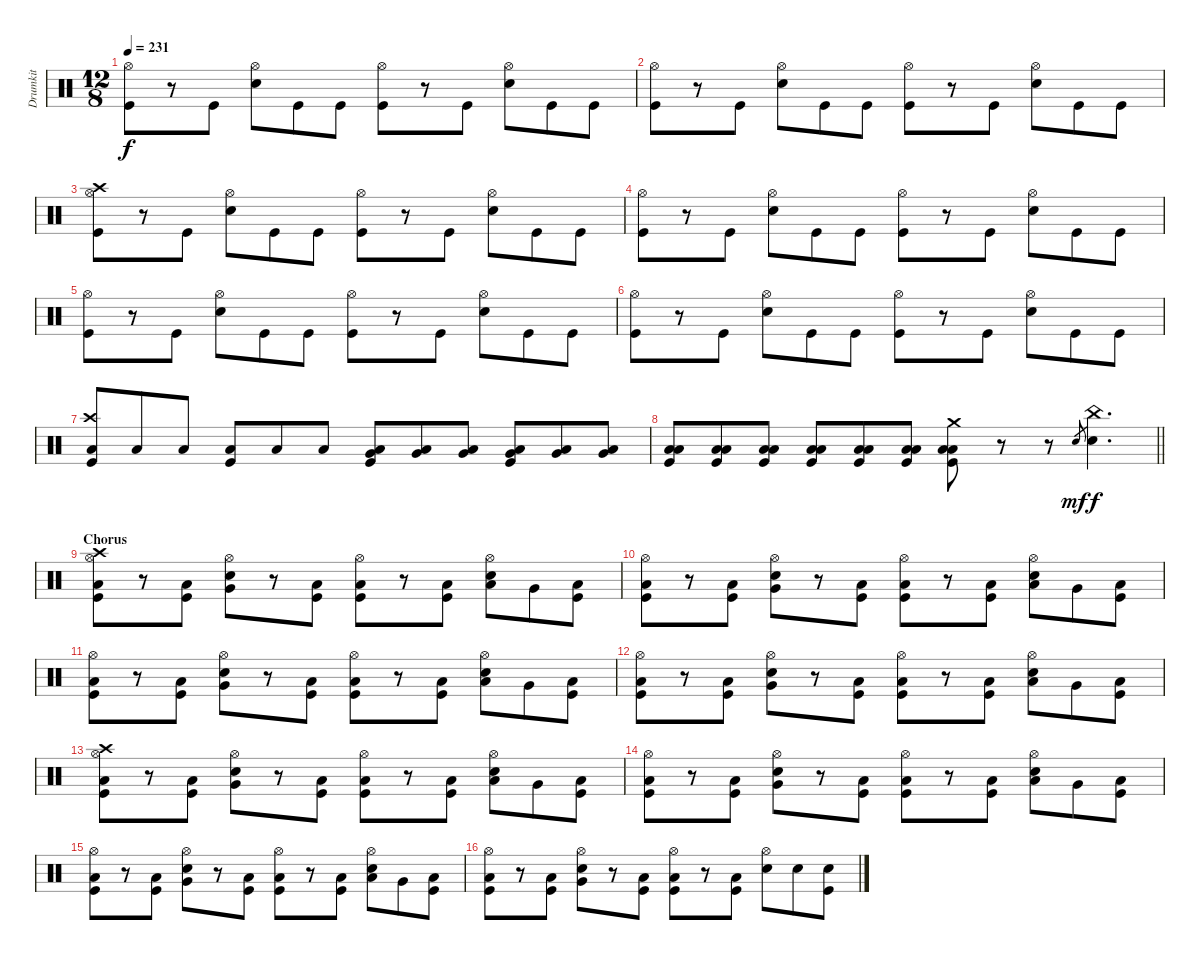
\track ("Drumkit" "Drumkit") {instrument percussion}
\staff {score}
\articulation defaults
\ts (12 8)
\tempo 231
\clef neutral
\ks c
("Hi-Hat (open)" "Kick (hit)").8{dy f} r.8 "Kick (hit)".8 ("Hi-Hat (open)" "Snare (hit) 2").8 "Kick (hit)".8 "Kick (hit)".8 ("Hi-Hat (open)" "Kick (hit)").8 r.8 "Kick (hit)".8 ("Hi-Hat (open)" "Snare (hit) 2").8 "Kick (hit)".8 "Kick (hit)".8 |
("Hi-Hat (open)" "Kick (hit)").8 r.8 "Kick (hit)".8 ("Hi-Hat (open)" "Snare (hit) 2").8 "Kick (hit)".8 "Kick (hit)".8 ("Hi-Hat (open)" "Kick (hit)").8 r.8 "Kick (hit)".8 ("Hi-Hat (open)" "Snare (hit) 2").8 "Kick (hit)".8 "Kick (hit)".8 |
("Crash high (hit)" "Hi-Hat (open)" "Kick (hit)").8 r.8 "Kick (hit)".8 ("Hi-Hat (open)" "Snare (hit) 2").8 "Kick (hit)".8 "Kick (hit)".8 ("Hi-Hat (open)" "Kick (hit)").8 r.8 "Kick (hit)".8 ("Hi-Hat (open)" "Snare (hit) 2").8 "Kick (hit)".8 "Kick (hit)".8 |
("Hi-Hat (open)" "Kick (hit)").8 r.8 "Kick (hit)".8 ("Hi-Hat (open)" "Snare (hit) 2").8 "Kick (hit)".8 "Kick (hit)".8 ("Hi-Hat (open)" "Kick (hit)").8 r.8 "Kick (hit)".8 ("Hi-Hat (open)" "Snare (hit) 2").8 "Kick (hit)".8 "Kick (hit)".8 |
("Hi-Hat (open)" "Kick (hit)").8 r.8 "Kick (hit)".8 ("Hi-Hat (open)" "Snare (hit) 2").8 "Kick (hit)".8 "Kick (hit)".8 ("Hi-Hat (open)" "Kick (hit)").8 r.8 "Kick (hit)".8 ("Hi-Hat (open)" "Snare (hit) 2").8 "Kick (hit)".8 "Kick (hit)".8 |
("Hi-Hat (open)" "Kick (hit)").8 r.8 "Kick (hit)".8 ("Hi-Hat (open)" "Snare (hit) 2").8 "Kick (hit)".8 "Kick (hit)".8 ("Hi-Hat (open)" "Kick (hit)").8 r.8 "Kick (hit)".8 ("Hi-Hat (open)" "Snare (hit) 2").8 "Kick (hit)".8 "Kick (hit)".8 |
("Crash high (hit)" "Low Floor Tom (hit)" "Kick (hit)").8 "Low Floor Tom (hit)".8 "Low Floor Tom (hit)".8 ("Low Floor Tom (hit)" "Kick (hit)").8 "Low Floor Tom (hit)".8 "Low Floor Tom (hit)".8 ("Very Low Tom (hit)" "Low Floor Tom (hit)" "Kick (hit)").8 ("Very Low Tom (hit)" "Low Floor Tom (hit)").8 ("Very Low Tom (hit)" "Low Floor Tom (hit)").8 ("Very Low Tom (hit)" "Low Floor Tom (hit)" "Kick (hit)").8 ("Very Low Tom (hit)" "Low Floor Tom (hit)").8 ("Very Low Tom (hit)" "Low Floor Tom (hit)").8 |
\barLineRight lightlight
("Low Tom (hit)" "Low Floor Tom (hit)" "Kick (hit)").8 ("Low Tom (hit)" "Low Floor Tom (hit)" "Kick (hit)").8 ("Low Tom (hit)" "Low Floor Tom (hit)" "Kick (hit)").8 ("Low Tom (hit)" "Low Floor Tom (hit)" "Kick (hit)").8 ("Low Tom (hit)" "Low Floor Tom (hit)" "Kick (hit)").8 ("Low Tom (hit)" "Low Floor Tom (hit)" "Kick (hit)").8 ("Crash medium (hit)" "Low Tom (hit)" "Low Floor Tom (hit)" "Kick (hit)").8 r.8 r.8 "Snare (hit)".8{gr dy mf} ("China (hit)" "Snare (hit) 2").4{d dy f} |
\section ("" "Chorus")
("Crash high (hit)" "Hi-Hat (open)" "Low Floor Tom (hit)" "Kick (hit)").8 r.8 ("Low Floor Tom (hit)" "Kick (hit)").8 ("Hi-Hat (open)" "Very Low Tom (hit)" "Snare (hit) 2").8 r.8 ("Low Floor Tom (hit)" "Kick (hit)").8 ("Hi-Hat (open)" "Low Floor Tom (hit)" "Kick (hit)").8 r.8 ("Low Floor Tom (hit)" "Kick (hit)").8 ("Hi-Hat (open)" "Low Tom (hit)" "Snare (hit) 2").8 "Very Low Tom (hit)".8 ("Low Floor Tom (hit)" "Kick (hit)").8 |
("Hi-Hat (open)" "Low Floor Tom (hit)" "Kick (hit)").8 r.8 ("Low Floor Tom (hit)" "Kick (hit)").8 ("Hi-Hat (open)" "Very Low Tom (hit)" "Snare (hit) 2").8 r.8 ("Low Floor Tom (hit)" "Kick (hit)").8 ("Hi-Hat (open)" "Low Floor Tom (hit)" "Kick (hit)").8 r.8 ("Low Floor Tom (hit)" "Kick (hit)").8 ("Hi-Hat (open)" "Low Tom (hit)" "Snare (hit) 2").8 "Very Low Tom (hit)".8 ("Low Floor Tom (hit)" "Kick (hit)").8 |
("Hi-Hat (open)" "Low Floor Tom (hit)" "Kick (hit)").8 r.8 ("Low Floor Tom (hit)" "Kick (hit)").8 ("Hi-Hat (open)" "Very Low Tom (hit)" "Snare (hit) 2").8 r.8 ("Low Floor Tom (hit)" "Kick (hit)").8 ("Hi-Hat (open)" "Low Floor Tom (hit)" "Kick (hit)").8 r.8 ("Low Floor Tom (hit)" "Kick (hit)").8 ("Hi-Hat (open)" "Low Tom (hit)" "Snare (hit) 2").8 "Very Low Tom (hit)".8 ("Low Floor Tom (hit)" "Kick (hit)").8 |
("Hi-Hat (open)" "Low Floor Tom (hit)" "Kick (hit)").8 r.8 ("Low Floor Tom (hit)" "Kick (hit)").8 ("Hi-Hat (open)" "Very Low Tom (hit)" "Snare (hit) 2").8 r.8 ("Low Floor Tom (hit)" "Kick (hit)").8 ("Hi-Hat (open)" "Low Floor Tom (hit)" "Kick (hit)").8 r.8 ("Low Floor Tom (hit)" "Kick (hit)").8 ("Hi-Hat (open)" "Low Tom (hit)" "Snare (hit) 2").8 "Very Low Tom (hit)".8 ("Low Floor Tom (hit)" "Kick (hit)").8 |
("Crash high (hit)" "Hi-Hat (open)" "Low Floor Tom (hit)" "Kick (hit)").8 r.8 ("Low Floor Tom (hit)" "Kick (hit)").8 ("Hi-Hat (open)" "Very Low Tom (hit)" "Snare (hit) 2").8 r.8 ("Low Floor Tom (hit)" "Kick (hit)").8 ("Hi-Hat (open)" "Low Floor Tom (hit)" "Kick (hit)").8 r.8 ("Low Floor Tom (hit)" "Kick (hit)").8 ("Hi-Hat (open)" "Low Tom (hit)" "Snare (hit) 2").8 "Very Low Tom (hit)".8 ("Low Floor Tom (hit)" "Kick (hit)").8 |
("Hi-Hat (open)" "Low Floor Tom (hit)" "Kick (hit)").8 r.8 ("Low Floor Tom (hit)" "Kick (hit)").8 ("Hi-Hat (open)" "Very Low Tom (hit)" "Snare (hit) 2").8 r.8 ("Low Floor Tom (hit)" "Kick (hit)").8 ("Hi-Hat (open)" "Low Floor Tom (hit)" "Kick (hit)").8 r.8 ("Low Floor Tom (hit)" "Kick (hit)").8 ("Hi-Hat (open)" "Low Tom (hit)" "Snare (hit) 2").8 "Very Low Tom (hit)".8 ("Low Floor Tom (hit)" "Kick (hit)").8 |
("Hi-Hat (open)" "Low Floor Tom (hit)" "Kick (hit)").8 r.8 ("Low Floor Tom (hit)" "Kick (hit)").8 ("Hi-Hat (open)" "Very Low Tom (hit)" "Snare (hit) 2").8 r.8 ("Low Floor Tom (hit)" "Kick (hit)").8 ("Hi-Hat (open)" "Low Floor Tom (hit)" "Kick (hit)").8 r.8 ("Low Floor Tom (hit)" "Kick (hit)").8 ("Hi-Hat (open)" "Low Tom (hit)" "Snare (hit) 2").8 "Very Low Tom (hit)".8 ("Low Floor Tom (hit)" "Kick (hit)").8 |
("Hi-Hat (open)" "Low Floor Tom (hit)" "Kick (hit)").8 r.8 ("Low Floor Tom (hit)" "Kick (hit)").8 ("Hi-Hat (open)" "Very Low Tom (hit)" "Snare (hit) 2").8 r.8 ("Low Floor Tom (hit)" "Kick (hit)").8 ("Hi-Hat (open)" "Low Floor Tom (hit)" "Kick (hit)").8 r.8 ("Low Floor Tom (hit)" "Kick (hit)").8 ("Hi-Hat (open)" "Snare (hit) 2").8 "Snare (hit) 2".8 ("Snare (hit) 2" "Kick (hit)").8
